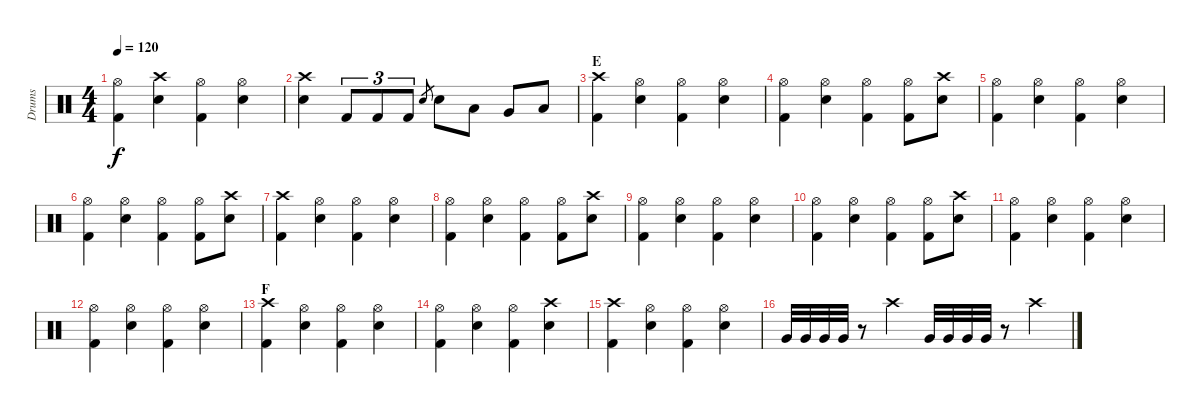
\track ("Drums" "Drums") {instrument percussion}
\staff {score}
\articulation defaults
\ts (4 4)
\tempo 120
\clef neutral
\ks c
("Hi-Hat (open)" "Kick (hit) 2").4{dy f} ("Crash high (hit)" "Electric Snare (hit)").4 ("Hi-Hat (open)" "Kick (hit) 2").4 ("Hi-Hat (open)" "Electric Snare (hit)").4 |
("Crash high (hit)" "Electric Snare (hit)").4 "Kick (hit) 2".8{tu (3 2)} "Kick (hit) 2".8{tu (3 2)} "Kick (hit) 2".8{tu (3 2)} "Electric Snare (hit)".8{gr} "Electric Snare (hit)".8 "Low Tom (hit)".8 "Very Low Tom (hit)".8 "Low Floor Tom (hit)".8 |
\section ("" "E")
("Crash high (hit)" "Kick (hit) 2").4 ("Hi-Hat (open)" "Electric Snare (hit)").4 ("Hi-Hat (open)" "Kick (hit) 2").4 ("Hi-Hat (open)" "Electric Snare (hit)").4 |
("Hi-Hat (open)" "Kick (hit) 2").4 ("Hi-Hat (open)" "Electric Snare (hit)").4 ("Hi-Hat (open)" "Kick (hit) 2").4 ("Hi-Hat (open)" "Kick (hit) 2").8 ("Crash high (hit)" "Electric Snare (hit)").8 |
("Hi-Hat (open)" "Kick (hit) 2").4 ("Hi-Hat (open)" "Electric Snare (hit)").4 ("Hi-Hat (open)" "Kick (hit) 2").4 ("Hi-Hat (open)" "Electric Snare (hit)").4 |
("Hi-Hat (open)" "Kick (hit) 2").4 ("Hi-Hat (open)" "Electric Snare (hit)").4 ("Hi-Hat (open)" "Kick (hit) 2").4 ("Hi-Hat (open)" "Kick (hit) 2").8 ("Crash high (hit)" "Electric Snare (hit)").8 |
("Crash high (hit)" "Kick (hit) 2").4 ("Hi-Hat (open)" "Electric Snare (hit)").4 ("Hi-Hat (open)" "Kick (hit) 2").4 ("Hi-Hat (open)" "Electric Snare (hit)").4 |
("Hi-Hat (open)" "Kick (hit) 2").4 ("Hi-Hat (open)" "Electric Snare (hit)").4 ("Hi-Hat (open)" "Kick (hit) 2").4 ("Hi-Hat (open)" "Kick (hit) 2").8 ("Crash high (hit)" "Electric Snare (hit)").8 |
("Hi-Hat (open)" "Kick (hit) 2").4 ("Hi-Hat (open)" "Electric Snare (hit)").4 ("Hi-Hat (open)" "Kick (hit) 2").4 ("Hi-Hat (open)" "Electric Snare (hit)").4 |
("Hi-Hat (open)" "Kick (hit) 2").4 ("Hi-Hat (open)" "Electric Snare (hit)").4 ("Hi-Hat (open)" "Kick (hit) 2").4 ("Hi-Hat (open)" "Kick (hit) 2").8 ("Crash high (hit)" "Electric Snare (hit)").8 |
("Hi-Hat (open)" "Kick (hit) 2").4 ("Hi-Hat (open)" "Electric Snare (hit)").4 ("Hi-Hat (open)" "Kick (hit) 2").4 ("Hi-Hat (open)" "Electric Snare (hit)").4 |
("Hi-Hat (open)" "Kick (hit) 2").4 ("Hi-Hat (open)" "Electric Snare (hit)").4 ("Hi-Hat (open)" "Kick (hit) 2").4 ("Hi-Hat (open)" "Electric Snare (hit)").4 |
\section ("" "F")
("Crash high (hit)" "Kick (hit) 2").4 ("Hi-Hat (open)" "Electric Snare (hit)").4 ("Hi-Hat (open)" "Kick (hit) 2").4 ("Hi-Hat (open)" "Electric Snare (hit)").4 |
("Hi-Hat (open)" "Kick (hit) 2").4 ("Hi-Hat (open)" "Electric Snare (hit)").4 ("Hi-Hat (open)" "Kick (hit) 2").4 ("Crash high (hit)" "Electric Snare (hit)").4 |
("Crash high (hit)" "Kick (hit) 2").4 ("Hi-Hat (open)" "Electric Snare (hit)").4 ("Hi-Hat (open)" "Kick (hit) 2").4 ("Hi-Hat (open)" "Electric Snare (hit)").4 |
"Very Low Tom (hit)".32 "Very Low Tom (hit)".32 "Very Low Tom (hit)".32 "Very Low Tom (hit)".32 r.8 "Crash high (hit)".4 "Very Low Tom (hit)".32 "Very Low Tom (hit)".32 "Very Low Tom (hit)".32 "Very Low Tom (hit)".32 r.8 "Crash high (hit)".4
